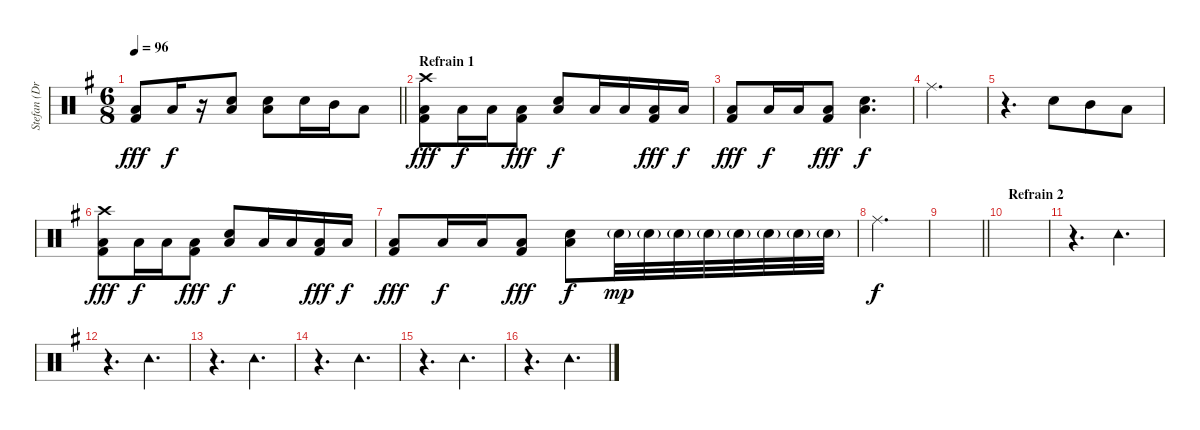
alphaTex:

\track ("Stefan (Drums)" "Stefan (Dr") {instrument percussion}
\staff {score}
\articulation defaults
\ts (6 8)
\tempo 96
\clef neutral
\barLineRight lightlight
\ks g
("Low Tom (hit)" "Kick (hit) 2").8{dy fff} "Low Tom (hit)".16{dy f} r.16 ("Snare (hit) 2" "Low Tom (hit)").8 ("Snare (hit) 2" "Low Tom (hit)").8 "Snare (hit) 2".16 "Mid Tom (hit)".16 "Low Tom (hit)".8 |
\section ("" "Refrain 1")
("Crash high (hit)" "Low Tom (hit)" "Kick (hit) 2").8{dy fff} "Low Tom (hit)".16{dy f} "Low Tom (hit)".16 ("Low Tom (hit)" "Kick (hit) 2").8{dy fff} ("Snare (hit) 2" "Low Tom (hit)").8{dy f} "Low Tom (hit)".16 "Low Tom (hit)".16 ("Low Tom (hit)" "Kick (hit) 2").16{dy fff} "Low Tom (hit)".16{dy f} |
("Low Tom (hit)" "Kick (hit) 2").8{dy fff} "Low Tom (hit)".16{dy f} "Low Tom (hit)".16 ("Low Tom (hit)" "Kick (hit) 2").8{dy fff} ("Snare (hit) 2" "Low Tom (hit)").4{d dy f} |
"Ride (middle)".2{d} |
r.4{d} "Snare (hit) 2".8 "Mid Tom (hit)".8 "Low Tom (hit)".8 |
("Crash high (hit)" "Low Tom (hit)" "Kick (hit) 2").8{dy fff} "Low Tom (hit)".16{dy f} "Low Tom (hit)".16 ("Low Tom (hit)" "Kick (hit) 2").8{dy fff} ("Snare (hit) 2" "Low Tom (hit)").8{dy f} "Low Tom (hit)".16 "Low Tom (hit)".16 ("Low Tom (hit)" "Kick (hit) 2").16{dy fff} "Low Tom (hit)".16{dy f} |
("Low Tom (hit)" "Kick (hit) 2").8{dy fff} "Low Tom (hit)".16{dy f} "Low Tom (hit)".16 ("Low Tom (hit)" "Kick (hit) 2").8{dy fff} ("Snare (hit) 2" "Low Tom (hit)").8{dy f} "Snare (hit) 2"{g}.32{dy mp} "Snare (hit) 2"{g}.32 "Snare (hit) 2"{g}.32 "Snare (hit) 2"{g}.32 "Snare (hit) 2"{g}.32 "Snare (hit) 2"{g}.32 "Snare (hit) 2"{g}.32 "Snare (hit) 2"{g}.32 |
"Ride (middle)".2{d dy f} |
\barLineRight lightlight
|
\section ("" "Refrain 2")
|
r.4{d} "Tambourine (hit)".4{d} |
r.4{d} "Tambourine (hit)".4{d} |
r.4{d} "Tambourine (hit)".4{d} |
r.4{d} "Tambourine (hit)".4{d} |
r.4{d} "Tambourine (hit)".4{d} |
r.4{d} "Tambourine (hit)".4{d}
